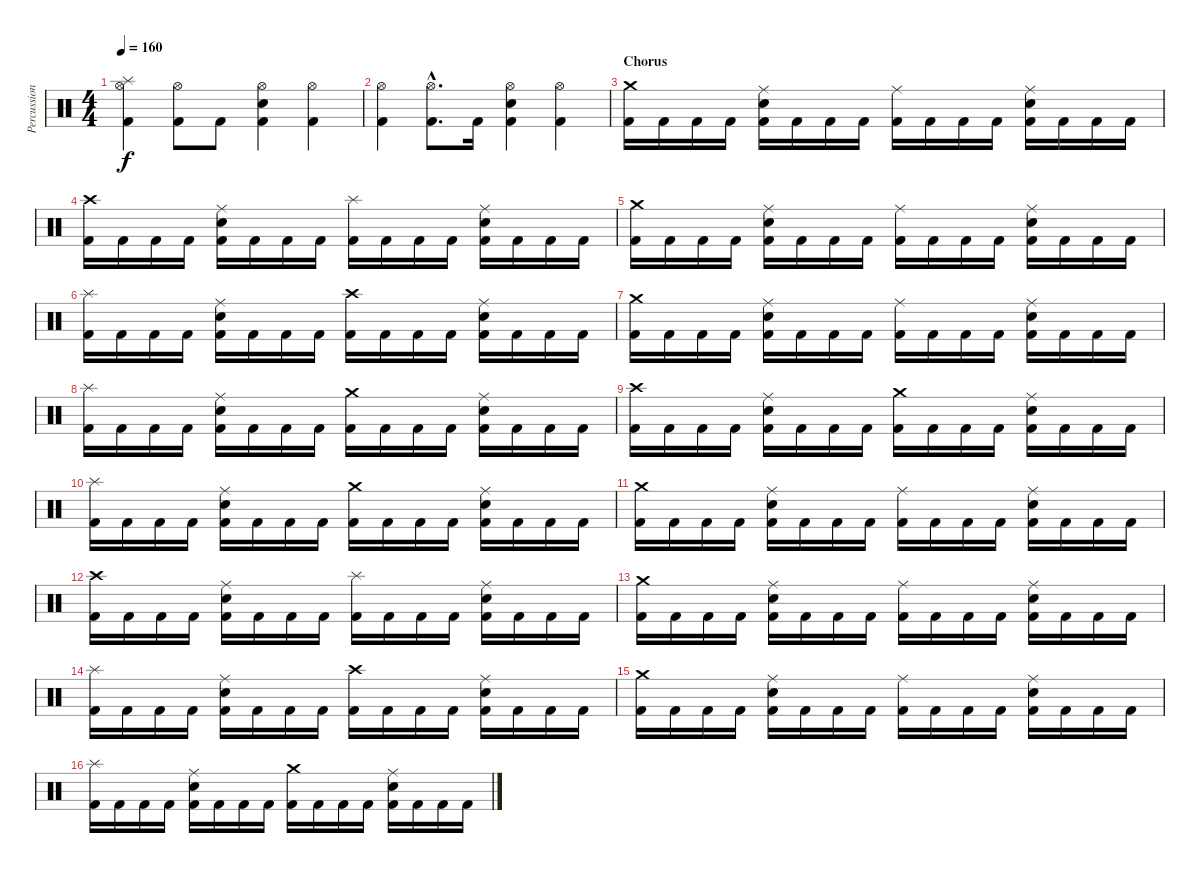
\track ("Percussions" "Percussion") {instrument percussion}
\staff {score}
\articulation defaults
\ts (4 4)
\tempo 160
\clef neutral
\ks c
("Splash (hit)" "Hi-Hat (open)" "Kick (hit) 2").4{dy f} ("Hi-Hat (open)" "Kick (hit) 2").8 "Kick (hit) 2".8 ("Electric Snare (hit)" "Hi-Hat (open)" "Kick (hit) 2").4 ("Hi-Hat (open)" "Kick (hit) 2").4 |
("Hi-Hat (open)" "Kick (hit) 2").4 ("Hi-Hat (open)"{hac} "Kick (hit) 2"{hac}).8{d} "Kick (hit) 2".16 ("Electric Snare (hit)" "Hi-Hat (open)" "Kick (hit) 2").4 ("Hi-Hat (open)" "Kick (hit) 2").4 |
\section ("" "Chorus")
("Crash medium (hit)" "Kick (hit) 2").16 "Kick (hit) 2".16 "Kick (hit) 2".16 "Kick (hit) 2".16 ("Electric Snare (hit)" "Ride (middle)" "Kick (hit) 2").16 "Kick (hit) 2".16 "Kick (hit) 2".16 "Kick (hit) 2".16 ("Ride (middle)" "Kick (hit) 2").16 "Kick (hit) 2".16 "Kick (hit) 2".16 "Kick (hit) 2".16 ("Electric Snare (hit)" "Ride (middle)" "Kick (hit) 2").16 "Kick (hit) 2".16 "Kick (hit) 2".16 "Kick (hit) 2".16 |
("Crash high (hit)" "Kick (hit) 2").16 "Kick (hit) 2".16 "Kick (hit) 2".16 "Kick (hit) 2".16 ("Electric Snare (hit)" "Ride (middle)" "Kick (hit) 2").16 "Kick (hit) 2".16 "Kick (hit) 2".16 "Kick (hit) 2".16 ("Splash (hit)" "Kick (hit) 2").16 "Kick (hit) 2".16 "Kick (hit) 2".16 "Kick (hit) 2".16 ("Electric Snare (hit)" "Ride (middle)" "Kick (hit) 2").16 "Kick (hit) 2".16 "Kick (hit) 2".16 "Kick (hit) 2".16 |
("Crash medium (hit)" "Kick (hit) 2").16 "Kick (hit) 2".16 "Kick (hit) 2".16 "Kick (hit) 2".16 ("Electric Snare (hit)" "Ride (middle)" "Kick (hit) 2").16 "Kick (hit) 2".16 "Kick (hit) 2".16 "Kick (hit) 2".16 ("Ride (middle)" "Kick (hit) 2").16 "Kick (hit) 2".16 "Kick (hit) 2".16 "Kick (hit) 2".16 ("Electric Snare (hit)" "Ride (middle)" "Kick (hit) 2").16 "Kick (hit) 2".16 "Kick (hit) 2".16 "Kick (hit) 2".16 |
("Splash (hit)" "Kick (hit) 2").16 "Kick (hit) 2".16 "Kick (hit) 2".16 "Kick (hit) 2".16 ("Electric Snare (hit)" "Ride (middle)" "Kick (hit) 2").16 "Kick (hit) 2".16 "Kick (hit) 2".16 "Kick (hit) 2".16 ("Crash high (hit)" "Kick (hit) 2").16 "Kick (hit) 2".16 "Kick (hit) 2".16 "Kick (hit) 2".16 ("Electric Snare (hit)" "Ride (middle)" "Kick (hit) 2").16 "Kick (hit) 2".16 "Kick (hit) 2".16 "Kick (hit) 2".16 |
("Crash medium (hit)" "Kick (hit) 2").16 "Kick (hit) 2".16 "Kick (hit) 2".16 "Kick (hit) 2".16 ("Electric Snare (hit)" "Ride (middle)" "Kick (hit) 2").16 "Kick (hit) 2".16 "Kick (hit) 2".16 "Kick (hit) 2".16 ("Ride (middle)" "Kick (hit) 2").16 "Kick (hit) 2".16 "Kick (hit) 2".16 "Kick (hit) 2".16 ("Electric Snare (hit)" "Ride (middle)" "Kick (hit) 2").16 "Kick (hit) 2".16 "Kick (hit) 2".16 "Kick (hit) 2".16 |
("Splash (hit)" "Kick (hit) 2").16 "Kick (hit) 2".16 "Kick (hit) 2".16 "Kick (hit) 2".16 ("Electric Snare (hit)" "Ride (middle)" "Kick (hit) 2").16 "Kick (hit) 2".16 "Kick (hit) 2".16 "Kick (hit) 2".16 ("Crash medium (hit)" "Kick (hit) 2").16 "Kick (hit) 2".16 "Kick (hit) 2".16 "Kick (hit) 2".16 ("Electric Snare (hit)" "Ride (middle)" "Kick (hit) 2").16 "Kick (hit) 2".16 "Kick (hit) 2".16 "Kick (hit) 2".16 |
("Crash high (hit)" "Kick (hit) 2").16 "Kick (hit) 2".16 "Kick (hit) 2".16 "Kick (hit) 2".16 ("Electric Snare (hit)" "Ride (middle)" "Kick (hit) 2").16 "Kick (hit) 2".16 "Kick (hit) 2".16 "Kick (hit) 2".16 ("Crash medium (hit)" "Kick (hit) 2").16 "Kick (hit) 2".16 "Kick (hit) 2".16 "Kick (hit) 2".16 ("Electric Snare (hit)" "Ride (middle)" "Kick (hit) 2").16 "Kick (hit) 2".16 "Kick (hit) 2".16 "Kick (hit) 2".16 |
("Splash (hit)" "Kick (hit) 2").16 "Kick (hit) 2".16 "Kick (hit) 2".16 "Kick (hit) 2".16 ("Electric Snare (hit)" "Ride (middle)" "Kick (hit) 2").16 "Kick (hit) 2".16 "Kick (hit) 2".16 "Kick (hit) 2".16 ("Crash medium (hit)" "Kick (hit) 2").16 "Kick (hit) 2".16 "Kick (hit) 2".16 "Kick (hit) 2".16 ("Electric Snare (hit)" "Ride (middle)" "Kick (hit) 2").16 "Kick (hit) 2".16 "Kick (hit) 2".16 "Kick (hit) 2".16 |
("Crash medium (hit)" "Kick (hit) 2").16 "Kick (hit) 2".16 "Kick (hit) 2".16 "Kick (hit) 2".16 ("Electric Snare (hit)" "Ride (middle)" "Kick (hit) 2").16 "Kick (hit) 2".16 "Kick (hit) 2".16 "Kick (hit) 2".16 ("Ride (middle)" "Kick (hit) 2").16 "Kick (hit) 2".16 "Kick (hit) 2".16 "Kick (hit) 2".16 ("Electric Snare (hit)" "Ride (middle)" "Kick (hit) 2").16 "Kick (hit) 2".16 "Kick (hit) 2".16 "Kick (hit) 2".16 |
("Crash high (hit)" "Kick (hit) 2").16 "Kick (hit) 2".16 "Kick (hit) 2".16 "Kick (hit) 2".16 ("Electric Snare (hit)" "Ride (middle)" "Kick (hit) 2").16 "Kick (hit) 2".16 "Kick (hit) 2".16 "Kick (hit) 2".16 ("Splash (hit)" "Kick (hit) 2").16 "Kick (hit) 2".16 "Kick (hit) 2".16 "Kick (hit) 2".16 ("Electric Snare (hit)" "Ride (middle)" "Kick (hit) 2").16 "Kick (hit) 2".16 "Kick (hit) 2".16 "Kick (hit) 2".16 |
("Crash medium (hit)" "Kick (hit) 2").16 "Kick (hit) 2".16 "Kick (hit) 2".16 "Kick (hit) 2".16 ("Electric Snare (hit)" "Ride (middle)" "Kick (hit) 2").16 "Kick (hit) 2".16 "Kick (hit) 2".16 "Kick (hit) 2".16 ("Ride (middle)" "Kick (hit) 2").16 "Kick (hit) 2".16 "Kick (hit) 2".16 "Kick (hit) 2".16 ("Electric Snare (hit)" "Ride (middle)" "Kick (hit) 2").16 "Kick (hit) 2".16 "Kick (hit) 2".16 "Kick (hit) 2".16 |
("Splash (hit)" "Kick (hit) 2").16 "Kick (hit) 2".16 "Kick (hit) 2".16 "Kick (hit) 2".16 ("Electric Snare (hit)" "Ride (middle)" "Kick (hit) 2").16 "Kick (hit) 2".16 "Kick (hit) 2".16 "Kick (hit) 2".16 ("Crash high (hit)" "Kick (hit) 2").16 "Kick (hit) 2".16 "Kick (hit) 2".16 "Kick (hit) 2".16 ("Electric Snare (hit)" "Ride (middle)" "Kick (hit) 2").16 "Kick (hit) 2".16 "Kick (hit) 2".16 "Kick (hit) 2".16 |
("Crash medium (hit)" "Kick (hit) 2").16 "Kick (hit) 2".16 "Kick (hit) 2".16 "Kick (hit) 2".16 ("Electric Snare (hit)" "Ride (middle)" "Kick (hit) 2").16 "Kick (hit) 2".16 "Kick (hit) 2".16 "Kick (hit) 2".16 ("Ride (middle)" "Kick (hit) 2").16 "Kick (hit) 2".16 "Kick (hit) 2".16 "Kick (hit) 2".16 ("Electric Snare (hit)" "Ride (middle)" "Kick (hit) 2").16 "Kick (hit) 2".16 "Kick (hit) 2".16 "Kick (hit) 2".16 |
("Splash (hit)" "Kick (hit) 2").16 "Kick (hit) 2".16 "Kick (hit) 2".16 "Kick (hit) 2".16 ("Electric Snare (hit)" "Ride (middle)" "Kick (hit) 2").16 "Kick (hit) 2".16 "Kick (hit) 2".16 "Kick (hit) 2".16 ("Crash medium (hit)" "Kick (hit) 2").16 "Kick (hit) 2".16 "Kick (hit) 2".16 "Kick (hit) 2".16 ("Electric Snare (hit)" "Ride (middle)" "Kick (hit) 2").16 "Kick (hit) 2".16 "Kick (hit) 2".16 "Kick (hit) 2".16
